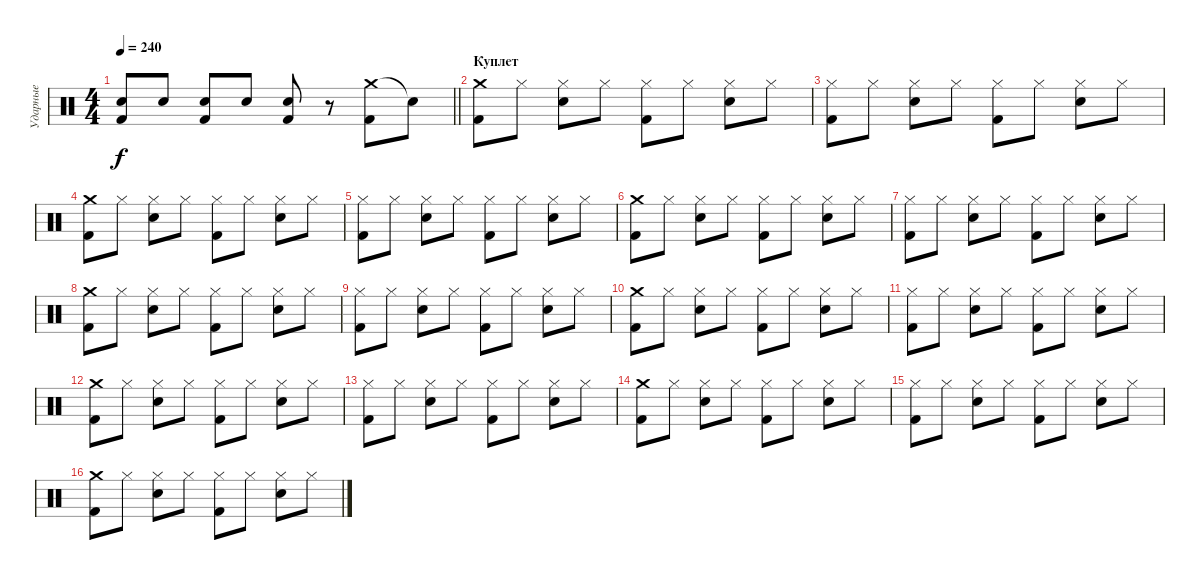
\track ("Ударные" "Ударные") {instrument percussion}
\staff {score}
\articulation defaults
\ts (4 4)
\tempo 240
\clef neutral
\barLineRight lightlight
\ks c
("Snare (hit) 2" "Kick (hit) 2").8{dy f} "Snare (hit) 2".8 ("Snare (hit) 2" "Kick (hit) 2").8 "Snare (hit) 2".8 ("Snare (hit) 2" "Kick (hit) 2").8 r.8 ("Crash medium (hit)" "Kick (hit) 2").8 "Snare (hit)"{t}.8 |
\section ("" "Куплет")
("Crash medium (hit)" "Kick (hit) 2").8 "Hi-Hat (closed)".8 ("Hi-Hat (closed)" "Snare (hit) 2").8 "Hi-Hat (closed)".8 ("Hi-Hat (closed)" "Kick (hit) 2").8 "Hi-Hat (closed)".8 ("Hi-Hat (closed)" "Snare (hit) 2").8 "Hi-Hat (closed)".8 |
("Hi-Hat (closed)" "Kick (hit) 2").8 "Hi-Hat (closed)".8 ("Hi-Hat (closed)" "Snare (hit) 2").8 "Hi-Hat (closed)".8 ("Hi-Hat (closed)" "Kick (hit) 2").8 "Hi-Hat (closed)".8 ("Hi-Hat (closed)" "Snare (hit) 2").8 "Hi-Hat (closed)".8 |
("Crash medium (hit)" "Kick (hit) 2").8 "Hi-Hat (closed)".8 ("Hi-Hat (closed)" "Snare (hit) 2").8 "Hi-Hat (closed)".8 ("Hi-Hat (closed)" "Kick (hit) 2").8 "Hi-Hat (closed)".8 ("Hi-Hat (closed)" "Snare (hit) 2").8 "Hi-Hat (closed)".8 |
("Hi-Hat (closed)" "Kick (hit) 2").8 "Hi-Hat (closed)".8 ("Hi-Hat (closed)" "Snare (hit) 2").8 "Hi-Hat (closed)".8 ("Hi-Hat (closed)" "Kick (hit) 2").8 "Hi-Hat (closed)".8 ("Hi-Hat (closed)" "Snare (hit) 2").8 "Hi-Hat (closed)".8 |
("Crash medium (hit)" "Kick (hit) 2").8 "Hi-Hat (closed)".8 ("Hi-Hat (closed)" "Snare (hit) 2").8 "Hi-Hat (closed)".8 ("Hi-Hat (closed)" "Kick (hit) 2").8 "Hi-Hat (closed)".8 ("Hi-Hat (closed)" "Snare (hit) 2").8 "Hi-Hat (closed)".8 |
("Hi-Hat (closed)" "Kick (hit) 2").8 "Hi-Hat (closed)".8 ("Hi-Hat (closed)" "Snare (hit) 2").8 "Hi-Hat (closed)".8 ("Hi-Hat (closed)" "Kick (hit) 2").8 "Hi-Hat (closed)".8 ("Hi-Hat (closed)" "Snare (hit) 2").8 "Hi-Hat (closed)".8 |
("Crash medium (hit)" "Kick (hit) 2").8 "Hi-Hat (closed)".8 ("Hi-Hat (closed)" "Snare (hit) 2").8 "Hi-Hat (closed)".8 ("Hi-Hat (closed)" "Kick (hit) 2").8 "Hi-Hat (closed)".8 ("Hi-Hat (closed)" "Snare (hit) 2").8 "Hi-Hat (closed)".8 |
("Hi-Hat (closed)" "Kick (hit) 2").8 "Hi-Hat (closed)".8 ("Hi-Hat (closed)" "Snare (hit) 2").8 "Hi-Hat (closed)".8 ("Hi-Hat (closed)" "Kick (hit) 2").8 "Hi-Hat (closed)".8 ("Hi-Hat (closed)" "Snare (hit) 2").8 "Hi-Hat (closed)".8 |
("Crash medium (hit)" "Kick (hit) 2").8 "Hi-Hat (closed)".8 ("Hi-Hat (closed)" "Snare (hit) 2").8 "Hi-Hat (closed)".8 ("Hi-Hat (closed)" "Kick (hit) 2").8 "Hi-Hat (closed)".8 ("Hi-Hat (closed)" "Snare (hit) 2").8 "Hi-Hat (closed)".8 |
("Hi-Hat (closed)" "Kick (hit) 2").8 "Hi-Hat (closed)".8 ("Hi-Hat (closed)" "Snare (hit) 2").8 "Hi-Hat (closed)".8 ("Hi-Hat (closed)" "Kick (hit) 2").8 "Hi-Hat (closed)".8 ("Hi-Hat (closed)" "Snare (hit) 2").8 "Hi-Hat (closed)".8 |
("Crash medium (hit)" "Kick (hit) 2").8 "Hi-Hat (closed)".8 ("Hi-Hat (closed)" "Snare (hit) 2").8 "Hi-Hat (closed)".8 ("Hi-Hat (closed)" "Kick (hit) 2").8 "Hi-Hat (closed)".8 ("Hi-Hat (closed)" "Snare (hit) 2").8 "Hi-Hat (closed)".8 |
("Hi-Hat (closed)" "Kick (hit) 2").8 "Hi-Hat (closed)".8 ("Hi-Hat (closed)" "Snare (hit) 2").8 "Hi-Hat (closed)".8 ("Hi-Hat (closed)" "Kick (hit) 2").8 "Hi-Hat (closed)".8 ("Hi-Hat (closed)" "Snare (hit) 2").8 "Hi-Hat (closed)".8 |
("Crash medium (hit)" "Kick (hit) 2").8 "Hi-Hat (closed)".8 ("Hi-Hat (closed)" "Snare (hit) 2").8 "Hi-Hat (closed)".8 ("Hi-Hat (closed)" "Kick (hit) 2").8 "Hi-Hat (closed)".8 ("Hi-Hat (closed)" "Snare (hit) 2").8 "Hi-Hat (closed)".8 |
("Hi-Hat (closed)" "Kick (hit) 2").8 "Hi-Hat (closed)".8 ("Hi-Hat (closed)" "Snare (hit) 2").8 "Hi-Hat (closed)".8 ("Hi-Hat (closed)" "Kick (hit) 2").8 "Hi-Hat (closed)".8 ("Hi-Hat (closed)" "Snare (hit) 2").8 "Hi-Hat (closed)".8 |
("Crash medium (hit)" "Kick (hit) 2").8 "Hi-Hat (closed)".8 ("Hi-Hat (closed)" "Snare (hit) 2").8 "Hi-Hat (closed)".8 ("Hi-Hat (closed)" "Kick (hit) 2").8 "Hi-Hat (closed)".8 ("Hi-Hat (closed)" "Snare (hit) 2").8 "Hi-Hat (closed)".8
